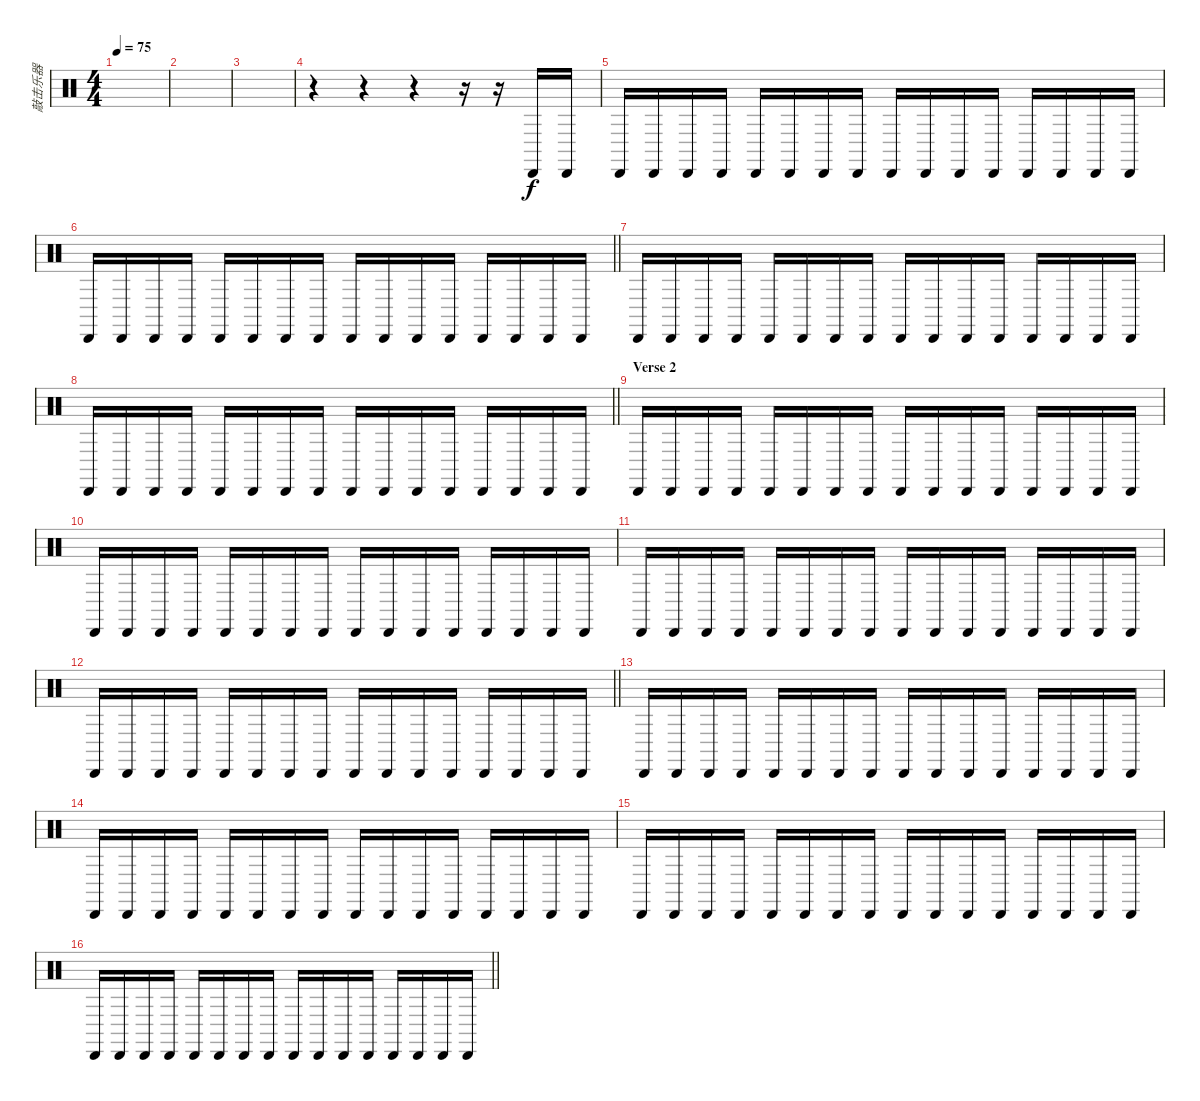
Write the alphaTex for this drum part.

\track ("敲击乐器" "敲击乐器") {instrument percussion}
\staff {score}
\articulation defaults
\ts (4 4)
\tempo 75
\clef neutral
\ks c
|
|
|
r.4 r.4 r.4 r.16 r.16 "Cabasa (hit)".16 "Cabasa (hit)".16 |
"Cabasa (hit)".16 "Cabasa (hit)".16 "Cabasa (hit)".16 "Cabasa (hit)".16 "Cabasa (hit)".16 "Cabasa (hit)".16 "Cabasa (hit)".16 "Cabasa (hit)".16 "Cabasa (hit)".16 "Cabasa (hit)".16 "Cabasa (hit)".16 "Cabasa (hit)".16 "Cabasa (hit)".16 "Cabasa (hit)".16 "Cabasa (hit)".16 "Cabasa (hit)".16 |
\barLineRight lightlight "Cabasa (hit)".16 "Cabasa (hit)".16 "Cabasa (hit)".16 "Cabasa (hit)".16 "Cabasa (hit)".16 "Cabasa (hit)".16 "Cabasa (hit)".16 "Cabasa (hit)".16 "Cabasa (hit)".16 "Cabasa (hit)".16 "Cabasa (hit)".16 "Cabasa (hit)".16 "Cabasa (hit)".16 "Cabasa (hit)".16 "Cabasa (hit)".16 "Cabasa (hit)".16
|
"Cabasa (hit)".16 "Cabasa (hit)".16 "Cabasa (hit)".16 "Cabasa (hit)".16 "Cabasa (hit)".16 "Cabasa (hit)".16 "Cabasa (hit)".16 "Cabasa (hit)".16 "Cabasa (hit)".16 "Cabasa (hit)".16 "Cabasa (hit)".16 "Cabasa (hit)".16 "Cabasa (hit)".16 "Cabasa (hit)".16 "Cabasa (hit)".16 "Cabasa (hit)".16 |
\barLineRight lightlight "Cabasa (hit)".16 "Cabasa (hit)".16 "Cabasa (hit)".16 "Cabasa (hit)".16 "Cabasa (hit)".16 "Cabasa (hit)".16 "Cabasa (hit)".16 "Cabasa (hit)".16 "Cabasa (hit)".16 "Cabasa (hit)".16 "Cabasa (hit)".16 "Cabasa (hit)".16 "Cabasa (hit)".16 "Cabasa (hit)".16 "Cabasa (hit)".16 "Cabasa (hit)".16
|
\section ("" "Verse 2")
"Cabasa (hit)".16 "Cabasa (hit)".16 "Cabasa (hit)".16 "Cabasa (hit)".16 "Cabasa (hit)".16 "Cabasa (hit)".16 "Cabasa (hit)".16 "Cabasa (hit)".16 "Cabasa (hit)".16 "Cabasa (hit)".16 "Cabasa (hit)".16 "Cabasa (hit)".16 "Cabasa (hit)".16 "Cabasa (hit)".16 "Cabasa (hit)".16 "Cabasa (hit)".16 |
"Cabasa (hit)".16 "Cabasa (hit)".16 "Cabasa (hit)".16 "Cabasa (hit)".16 "Cabasa (hit)".16 "Cabasa (hit)".16 "Cabasa (hit)".16 "Cabasa (hit)".16 "Cabasa (hit)".16 "Cabasa (hit)".16 "Cabasa (hit)".16 "Cabasa (hit)".16 "Cabasa (hit)".16 "Cabasa (hit)".16 "Cabasa (hit)".16 "Cabasa (hit)".16 |
"Cabasa (hit)".16 "Cabasa (hit)".16 "Cabasa (hit)".16 "Cabasa (hit)".16 "Cabasa (hit)".16 "Cabasa (hit)".16 "Cabasa (hit)".16 "Cabasa (hit)".16 "Cabasa (hit)".16 "Cabasa (hit)".16 "Cabasa (hit)".16 "Cabasa (hit)".16 "Cabasa (hit)".16 "Cabasa (hit)".16 "Cabasa (hit)".16 "Cabasa (hit)".16 |
\barLineRight lightlight "Cabasa (hit)".16 "Cabasa (hit)".16 "Cabasa (hit)".16 "Cabasa (hit)".16 "Cabasa (hit)".16 "Cabasa (hit)".16 "Cabasa (hit)".16 "Cabasa (hit)".16 "Cabasa (hit)".16 "Cabasa (hit)".16 "Cabasa (hit)".16 "Cabasa (hit)".16 "Cabasa (hit)".16 "Cabasa (hit)".16 "Cabasa (hit)".16 "Cabasa (hit)".16
|
"Cabasa (hit)".16 "Cabasa (hit)".16 "Cabasa (hit)".16 "Cabasa (hit)".16 "Cabasa (hit)".16 "Cabasa (hit)".16 "Cabasa (hit)".16 "Cabasa (hit)".16 "Cabasa (hit)".16 "Cabasa (hit)".16 "Cabasa (hit)".16 "Cabasa (hit)".16 "Cabasa (hit)".16 "Cabasa (hit)".16 "Cabasa (hit)".16 "Cabasa (hit)".16 |
"Cabasa (hit)".16 "Cabasa (hit)".16 "Cabasa (hit)".16 "Cabasa (hit)".16 "Cabasa (hit)".16 "Cabasa (hit)".16 "Cabasa (hit)".16 "Cabasa (hit)".16 "Cabasa (hit)".16 "Cabasa (hit)".16 "Cabasa (hit)".16 "Cabasa (hit)".16 "Cabasa (hit)".16 "Cabasa (hit)".16 "Cabasa (hit)".16 "Cabasa (hit)".16 |
"Cabasa (hit)".16 "Cabasa (hit)".16 "Cabasa (hit)".16 "Cabasa (hit)".16 "Cabasa (hit)".16 "Cabasa (hit)".16 "Cabasa (hit)".16 "Cabasa (hit)".16 "Cabasa (hit)".16 "Cabasa (hit)".16 "Cabasa (hit)".16 "Cabasa (hit)".16 "Cabasa (hit)".16 "Cabasa (hit)".16 "Cabasa (hit)".16 "Cabasa (hit)".16 |
\barLineRight lightlight "Cabasa (hit)".16 "Cabasa (hit)".16 "Cabasa (hit)".16 "Cabasa (hit)".16 "Cabasa (hit)".16 "Cabasa (hit)".16 "Cabasa (hit)".16 "Cabasa (hit)".16 "Cabasa (hit)".16 "Cabasa (hit)".16 "Cabasa (hit)".16 "Cabasa (hit)".16 "Cabasa (hit)".16 "Cabasa (hit)".16 "Cabasa (hit)".16 "Cabasa (hit)".16
